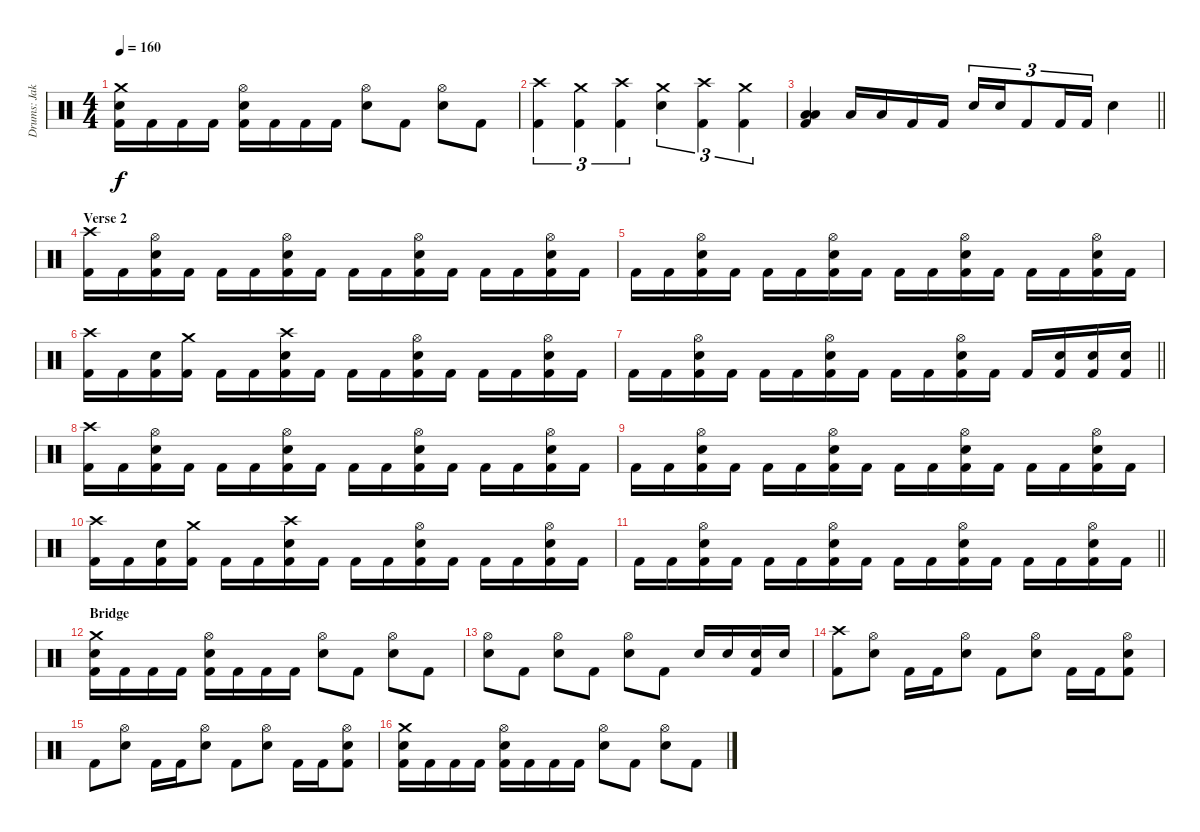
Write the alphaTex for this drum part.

\track ("Drums: Jake" "Drums: Jak") {instrument percussion}
\staff {score}
\articulation defaults
\ts (4 4)
\tempo 160
\clef neutral
\ks c
("Crash medium (hit)" "Snare (hit) 2" "Kick (hit) 2").16{dy f} "Kick (hit) 2".16 "Kick (hit) 2".16 "Kick (hit) 2".16 ("Hi-Hat (open)" "Snare (hit) 2" "Kick (hit) 2").16 "Kick (hit) 2".16 "Kick (hit) 2".16 "Kick (hit) 2".16 ("Hi-Hat (open)" "Snare (hit) 2").8 "Kick (hit) 2".8 ("Hi-Hat (open)" "Snare (hit) 2").8 "Kick (hit) 2".8 |
("Crash high (hit)" "Kick (hit) 2").4{tu (3 2)} ("Crash medium (hit)" "Kick (hit) 2").4{tu (3 2)} ("Crash high (hit)" "Kick (hit) 2").4{tu (3 2)} ("Crash medium (hit)" "Snare (hit) 2").4{tu (3 2)} ("Crash high (hit)" "Kick (hit) 2").4{tu (3 2)} ("Crash medium (hit)" "Kick (hit) 2").4{tu (3 2)} |
\barLineRight lightlight
("Low Tom (hit)" "Low Floor Tom (hit)" "Kick (hit) 2").4 "Low Tom (hit)".16 "Low Tom (hit)".16 "Kick (hit) 2".16 "Kick (hit) 2".16 "Snare (hit) 2".16{tu (3 2)} "Snare (hit) 2".16{tu (3 2)} "Kick (hit) 2".8{tu (3 2)} "Kick (hit) 2".16{tu (3 2)} "Kick (hit) 2".16{tu (3 2)} "Snare (hit) 2".4 |
\section ("" "Verse 2")
("Crash high (hit)" "Kick (hit) 2").16 "Kick (hit) 2".16 ("Hi-Hat (open)" "Snare (hit) 2" "Kick (hit) 2").16 "Kick (hit) 2".16 "Kick (hit) 2".16 "Kick (hit) 2".16 ("Hi-Hat (open)" "Snare (hit) 2" "Kick (hit) 2").16 "Kick (hit) 2".16 "Kick (hit) 2".16 "Kick (hit) 2".16 ("Hi-Hat (open)" "Snare (hit) 2" "Kick (hit) 2").16 "Kick (hit) 2".16 "Kick (hit) 2".16 "Kick (hit) 2".16 ("Hi-Hat (open)" "Snare (hit) 2" "Kick (hit) 2").16 "Kick (hit) 2".16 |
"Kick (hit) 2".16 "Kick (hit) 2".16 ("Hi-Hat (open)" "Snare (hit) 2" "Kick (hit) 2").16 "Kick (hit) 2".16 "Kick (hit) 2".16 "Kick (hit) 2".16 ("Hi-Hat (open)" "Snare (hit) 2" "Kick (hit) 2").16 "Kick (hit) 2".16 "Kick (hit) 2".16 "Kick (hit) 2".16 ("Hi-Hat (open)" "Snare (hit) 2" "Kick (hit) 2").16 "Kick (hit) 2".16 "Kick (hit) 2".16 "Kick (hit) 2".16 ("Hi-Hat (open)" "Snare (hit) 2" "Kick (hit) 2").16 "Kick (hit) 2".16 |
("Crash high (hit)" "Kick (hit) 2").16 "Kick (hit) 2".16 ("Snare (hit) 2" "Kick (hit) 2").16 ("Crash medium (hit)" "Kick (hit) 2").16 "Kick (hit) 2".16 "Kick (hit) 2".16 ("Crash high (hit)" "Snare (hit) 2" "Kick (hit) 2").16 "Kick (hit) 2".16 "Kick (hit) 2".16 "Kick (hit) 2".16 ("Hi-Hat (open)" "Snare (hit) 2" "Kick (hit) 2").16 "Kick (hit) 2".16 "Kick (hit) 2".16 "Kick (hit) 2".16 ("Hi-Hat (open)" "Snare (hit) 2" "Kick (hit) 2").16 "Kick (hit) 2".16 |
\barLineRight lightlight "Kick (hit) 2".16 "Kick (hit) 2".16
("Hi-Hat (open)" "Snare (hit) 2" "Kick (hit) 2").16 "Kick (hit) 2".16 "Kick (hit) 2".16 "Kick (hit) 2".16 ("Hi-Hat (open)" "Snare (hit) 2" "Kick (hit) 2").16 "Kick (hit) 2".16 "Kick (hit) 2".16 "Kick (hit) 2".16 ("Hi-Hat (open)" "Snare (hit) 2" "Kick (hit) 2").16 "Kick (hit) 2".16 "Kick (hit) 2".16 ("Snare (hit) 2" "Kick (hit) 2").16 ("Snare (hit) 2" "Kick (hit) 2").16 ("Snare (hit) 2" "Kick (hit) 2").16 |
("Crash high (hit)" "Kick (hit) 2").16 "Kick (hit) 2".16 ("Hi-Hat (open)" "Snare (hit) 2" "Kick (hit) 2").16 "Kick (hit) 2".16 "Kick (hit) 2".16 "Kick (hit) 2".16 ("Hi-Hat (open)" "Snare (hit) 2" "Kick (hit) 2").16 "Kick (hit) 2".16 "Kick (hit) 2".16 "Kick (hit) 2".16 ("Hi-Hat (open)" "Snare (hit) 2" "Kick (hit) 2").16 "Kick (hit) 2".16 "Kick (hit) 2".16 "Kick (hit) 2".16 ("Hi-Hat (open)" "Snare (hit) 2" "Kick (hit) 2").16 "Kick (hit) 2".16 |
"Kick (hit) 2".16 "Kick (hit) 2".16 ("Hi-Hat (open)" "Snare (hit) 2" "Kick (hit) 2").16 "Kick (hit) 2".16 "Kick (hit) 2".16 "Kick (hit) 2".16 ("Hi-Hat (open)" "Snare (hit) 2" "Kick (hit) 2").16 "Kick (hit) 2".16 "Kick (hit) 2".16 "Kick (hit) 2".16 ("Hi-Hat (open)" "Snare (hit) 2" "Kick (hit) 2").16 "Kick (hit) 2".16 "Kick (hit) 2".16 "Kick (hit) 2".16 ("Hi-Hat (open)" "Snare (hit) 2" "Kick (hit) 2").16 "Kick (hit) 2".16 |
("Crash high (hit)" "Kick (hit) 2").16 "Kick (hit) 2".16 ("Snare (hit) 2" "Kick (hit) 2").16 ("Crash medium (hit)" "Kick (hit) 2").16 "Kick (hit) 2".16 "Kick (hit) 2".16 ("Crash high (hit)" "Snare (hit) 2" "Kick (hit) 2").16 "Kick (hit) 2".16 "Kick (hit) 2".16 "Kick (hit) 2".16 ("Hi-Hat (open)" "Snare (hit) 2" "Kick (hit) 2").16 "Kick (hit) 2".16 "Kick (hit) 2".16 "Kick (hit) 2".16 ("Hi-Hat (open)" "Snare (hit) 2" "Kick (hit) 2").16 "Kick (hit) 2".16 |
\barLineRight lightlight "Kick (hit) 2".16 "Kick (hit) 2".16
("Hi-Hat (open)" "Snare (hit) 2" "Kick (hit) 2").16 "Kick (hit) 2".16 "Kick (hit) 2".16 "Kick (hit) 2".16 ("Hi-Hat (open)" "Snare (hit) 2" "Kick (hit) 2").16 "Kick (hit) 2".16 "Kick (hit) 2".16 "Kick (hit) 2".16 ("Hi-Hat (open)" "Snare (hit) 2" "Kick (hit) 2").16 "Kick (hit) 2".16 "Kick (hit) 2".16 "Kick (hit) 2".16 ("Hi-Hat (open)" "Snare (hit) 2" "Kick (hit) 2").16 "Kick (hit) 2".16 |
\section ("" "Bridge")
("Crash medium (hit)" "Snare (hit) 2" "Kick (hit) 2").16 "Kick (hit) 2".16 "Kick (hit) 2".16 "Kick (hit) 2".16 ("Hi-Hat (open)" "Snare (hit) 2" "Kick (hit) 2").16 "Kick (hit) 2".16 "Kick (hit) 2".16 "Kick (hit) 2".16 ("Hi-Hat (open)" "Snare (hit) 2").8 "Kick (hit) 2".8 ("Hi-Hat (open)" "Snare (hit) 2").8 "Kick (hit) 2".8 |
("Hi-Hat (open)" "Snare (hit) 2").8 "Kick (hit) 2".8 ("Hi-Hat (open)" "Snare (hit) 2").8 "Kick (hit) 2".8 ("Hi-Hat (open)" "Snare (hit) 2").8 "Kick (hit) 2".8 "Snare (hit) 2".16 "Snare (hit) 2".16 ("Snare (hit) 2" "Kick (hit) 2").16 "Snare (hit) 2".16 |
("Crash high (hit)" "Kick (hit) 2").8 ("Hi-Hat (open)" "Snare (hit) 2").8 "Kick (hit) 2".16 "Kick (hit) 2".16 ("Hi-Hat (open)" "Snare (hit) 2").8 "Kick (hit) 2".8 ("Hi-Hat (open)" "Snare (hit) 2").8 "Kick (hit) 2".16 "Kick (hit) 2".16 ("Hi-Hat (open)" "Snare (hit) 2" "Kick (hit) 2").8 |
"Kick (hit) 2".8 ("Hi-Hat (open)" "Snare (hit) 2").8 "Kick (hit) 2".16 "Kick (hit) 2".16 ("Hi-Hat (open)" "Snare (hit) 2").8 "Kick (hit) 2".8 ("Hi-Hat (open)" "Snare (hit) 2").8 "Kick (hit) 2".16 "Kick (hit) 2".16 ("Hi-Hat (open)" "Snare (hit) 2" "Kick (hit) 2").8 |
("Crash medium (hit)" "Snare (hit) 2" "Kick (hit) 2").16 "Kick (hit) 2".16 "Kick (hit) 2".16 "Kick (hit) 2".16 ("Hi-Hat (open)" "Snare (hit) 2" "Kick (hit) 2").16 "Kick (hit) 2".16 "Kick (hit) 2".16 "Kick (hit) 2".16 ("Hi-Hat (open)" "Snare (hit) 2").8 "Kick (hit) 2".8 ("Hi-Hat (open)" "Snare (hit) 2").8 "Kick (hit) 2".8
